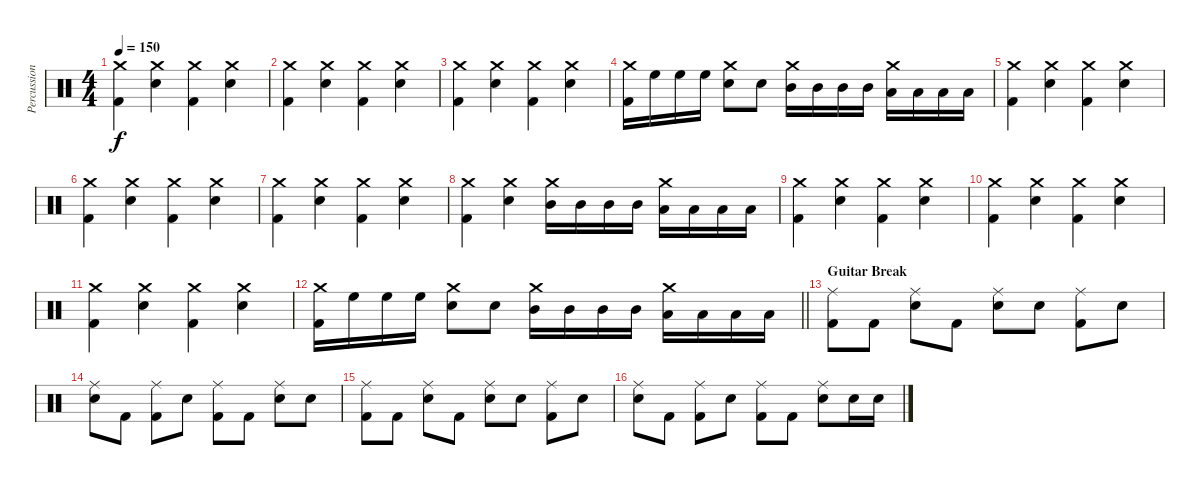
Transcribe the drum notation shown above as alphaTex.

\track ("Percussion" "Percussion") {instrument percussion}
\staff {score}
\articulation defaults
\ts (4 4)
\tempo 150
\clef neutral
\ks c
("Crash medium (hit)" "Kick (hit) 2").4{dy f} ("Crash medium (hit)" "Electric Snare (hit)").4 ("Crash medium (hit)" "Kick (hit) 2").4 ("Crash medium (hit)" "Electric Snare (hit)").4 |
("Crash medium (hit)" "Kick (hit) 2").4 ("Crash medium (hit)" "Electric Snare (hit)").4 ("Crash medium (hit)" "Kick (hit) 2").4 ("Crash medium (hit)" "Electric Snare (hit)").4 |
("Crash medium (hit)" "Kick (hit) 2").4 ("Crash medium (hit)" "Electric Snare (hit)").4 ("Crash medium (hit)" "Kick (hit) 2").4 ("Crash medium (hit)" "Electric Snare (hit)").4 |
("Crash medium (hit)" "Kick (hit) 2").16 "High Floor Tom (hit)".16 "High Floor Tom (hit)".16 "High Floor Tom (hit)".16 ("Crash medium (hit)" "Electric Snare (hit)").8 "Electric Snare (hit)".8 ("Crash medium (hit)" "Mid Tom (hit)").16 "Mid Tom (hit)".16 "Mid Tom (hit)".16 "Mid Tom (hit)".16 ("Crash medium (hit)" "Low Tom (hit)").16 "Low Tom (hit)".16 "Low Tom (hit)".16 "Low Tom (hit)".16 |
("Crash medium (hit)" "Kick (hit) 2").4 ("Crash medium (hit)" "Electric Snare (hit)").4 ("Crash medium (hit)" "Kick (hit) 2").4 ("Crash medium (hit)" "Electric Snare (hit)").4 |
("Crash medium (hit)" "Kick (hit) 2").4 ("Crash medium (hit)" "Electric Snare (hit)").4 ("Crash medium (hit)" "Kick (hit) 2").4 ("Crash medium (hit)" "Electric Snare (hit)").4 |
("Crash medium (hit)" "Kick (hit) 2").4 ("Crash medium (hit)" "Electric Snare (hit)").4 ("Crash medium (hit)" "Kick (hit) 2").4 ("Crash medium (hit)" "Electric Snare (hit)").4 |
("Crash medium (hit)" "Kick (hit) 2").4 ("Crash medium (hit)" "Electric Snare (hit)").4 ("Crash medium (hit)" "Mid Tom (hit)").16 "Mid Tom (hit)".16 "Mid Tom (hit)".16 "Mid Tom (hit)".16 ("Crash medium (hit)" "Low Tom (hit)").16 "Low Tom (hit)".16 "Low Tom (hit)".16 "Low Tom (hit)".16 |
("Crash medium (hit)" "Kick (hit) 2").4 ("Crash medium (hit)" "Electric Snare (hit)").4 ("Crash medium (hit)" "Kick (hit) 2").4 ("Crash medium (hit)" "Electric Snare (hit)").4 |
("Crash medium (hit)" "Kick (hit) 2").4 ("Crash medium (hit)" "Electric Snare (hit)").4 ("Crash medium (hit)" "Kick (hit) 2").4 ("Crash medium (hit)" "Electric Snare (hit)").4 |
("Crash medium (hit)" "Kick (hit) 2").4 ("Crash medium (hit)" "Electric Snare (hit)").4 ("Crash medium (hit)" "Kick (hit) 2").4 ("Crash medium (hit)" "Electric Snare (hit)").4 |
\barLineRight lightlight
("Crash medium (hit)" "Kick (hit) 2").16 "High Floor Tom (hit)".16 "High Floor Tom (hit)".16 "High Floor Tom (hit)".16 ("Crash medium (hit)" "Electric Snare (hit)").8 "Electric Snare (hit)".8 ("Crash medium (hit)" "Mid Tom (hit)").16 "Mid Tom (hit)".16 "Mid Tom (hit)".16 "Mid Tom (hit)".16 ("Crash medium (hit)" "Low Tom (hit)").16 "Low Tom (hit)".16 "Low Tom (hit)".16 "Low Tom (hit)".16 |
\section ("" "Guitar Break")
("Ride (middle)" "Kick (hit) 2").8 "Kick (hit) 2".8 ("Ride (middle)" "Electric Snare (hit)").8 "Kick (hit) 2".8 ("Ride (middle)" "Electric Snare (hit)").8 "Electric Snare (hit)".8 ("Ride (middle)" "Kick (hit) 2").8 "Electric Snare (hit)".8 |
("Ride (middle)" "Electric Snare (hit)").8 "Kick (hit) 2".8 ("Ride (middle)" "Kick (hit) 2").8 "Electric Snare (hit)".8 ("Ride (middle)" "Kick (hit) 2").8 "Kick (hit) 2".8 ("Ride (middle)" "Electric Snare (hit)").8 "Electric Snare (hit)".8 |
("Ride (middle)" "Kick (hit) 2").8 "Kick (hit) 2".8 ("Ride (middle)" "Electric Snare (hit)").8 "Kick (hit) 2".8 ("Ride (middle)" "Electric Snare (hit)").8 "Electric Snare (hit)".8 ("Ride (middle)" "Kick (hit) 2").8 "Electric Snare (hit)".8 |
("Ride (middle)" "Electric Snare (hit)").8 "Kick (hit) 2".8 ("Ride (middle)" "Kick (hit) 2").8 "Electric Snare (hit)".8 ("Ride (middle)" "Kick (hit) 2").8 "Kick (hit) 2".8 ("Ride (middle)" "Electric Snare (hit)").8 "Electric Snare (hit)".16 "Electric Snare (hit)".16
